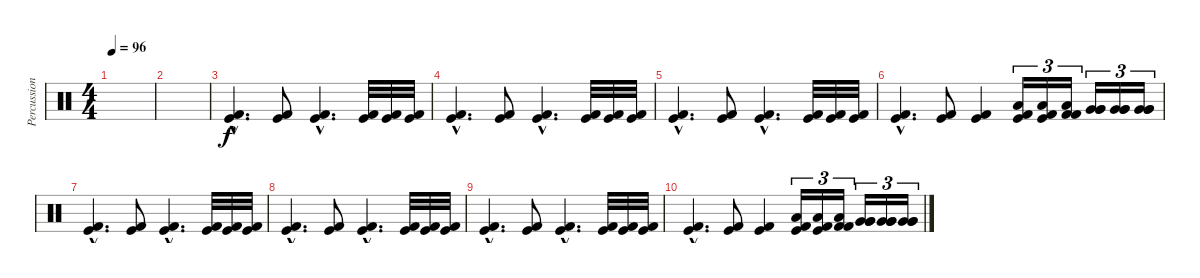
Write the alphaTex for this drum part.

\track ("Percussion" "Percussion") {instrument percussion}
\staff {score}
\articulation defaults
\ts (4 4)
\tempo 96
\clef neutral
\ks c
|
|
("Kick (hit) 2"{hac} "Kick (hit)"{hac}).4{d} ("Kick (hit) 2" "Kick (hit)").8 ("Kick (hit)"{hac} "Kick (hit) 2"{hac}).4{d} ("Kick (hit) 2" "Kick (hit)").32 ("Kick (hit) 2" "Kick (hit)").32 ("Kick (hit) 2" "Kick (hit)").32 |
("Kick (hit) 2"{hac} "Kick (hit)"{hac}).4{d} ("Kick (hit) 2" "Kick (hit)").8 ("Kick (hit)"{hac} "Kick (hit) 2"{hac}).4{d} ("Kick (hit) 2" "Kick (hit)").32 ("Kick (hit) 2" "Kick (hit)").32 ("Kick (hit) 2" "Kick (hit)").32 |
("Kick (hit) 2"{hac} "Kick (hit)"{hac}).4{d} ("Kick (hit) 2" "Kick (hit)").8 ("Kick (hit)"{hac} "Kick (hit) 2"{hac}).4{d} ("Kick (hit) 2" "Kick (hit)").32 ("Kick (hit) 2" "Kick (hit)").32 ("Kick (hit) 2" "Kick (hit)").32 |
("Kick (hit) 2"{hac} "Kick (hit)"{hac}).4{d} ("Kick (hit) 2" "Kick (hit)").8 ("Kick (hit)" "Kick (hit) 2").4 ("Low Tom (hit)" "Kick (hit) 2" "Kick (hit)").16{tu (3 2)} ("Low Tom (hit)" "Kick (hit) 2" "Kick (hit)").16{tu (3 2)} ("Low Tom (hit)" "Kick (hit) 2" "Kick (hit) 2").16{tu (3 2)} ("Very Low Tom (hit)" "Very Low Tom (hit)" "Very Low Tom (hit)").16{tu (3 2)} ("Very Low Tom (hit)" "Very Low Tom (hit)" "Very Low Tom (hit)").16{tu (3 2)} ("Very Low Tom (hit)" "Very Low Tom (hit)" "Very Low Tom (hit)").16{tu (3 2)} |
("Kick (hit) 2"{hac} "Kick (hit)"{hac}).4{d} ("Kick (hit) 2" "Kick (hit)").8 ("Kick (hit)"{hac} "Kick (hit) 2"{hac}).4{d} ("Kick (hit) 2" "Kick (hit)").32 ("Kick (hit) 2" "Kick (hit)").32 ("Kick (hit) 2" "Kick (hit)").32 |
("Kick (hit) 2"{hac} "Kick (hit)"{hac}).4{d} ("Kick (hit) 2" "Kick (hit)").8 ("Kick (hit)"{hac} "Kick (hit) 2"{hac}).4{d} ("Kick (hit) 2" "Kick (hit)").32 ("Kick (hit) 2" "Kick (hit)").32 ("Kick (hit) 2" "Kick (hit)").32 |
("Kick (hit) 2"{hac} "Kick (hit)"{hac}).4{d} ("Kick (hit) 2" "Kick (hit)").8 ("Kick (hit)"{hac} "Kick (hit) 2"{hac}).4{d} ("Kick (hit) 2" "Kick (hit)").32 ("Kick (hit) 2" "Kick (hit)").32 ("Kick (hit) 2" "Kick (hit)").32 |
("Kick (hit) 2"{hac} "Kick (hit)"{hac}).4{d} ("Kick (hit) 2" "Kick (hit)").8 ("Kick (hit)" "Kick (hit) 2").4 ("Low Tom (hit)" "Kick (hit) 2" "Kick (hit)").16{tu (3 2)} ("Low Tom (hit)" "Kick (hit) 2" "Kick (hit)").16{tu (3 2)} ("Low Tom (hit)" "Kick (hit) 2" "Kick (hit) 2").16{tu (3 2)} ("Very Low Tom (hit)" "Very Low Tom (hit)" "Very Low Tom (hit)").16{tu (3 2)} ("Very Low Tom (hit)" "Very Low Tom (hit)" "Very Low Tom (hit)").16{tu (3 2)} ("Very Low Tom (hit)" "Very Low Tom (hit)" "Very Low Tom (hit)").16{tu (3 2)}
